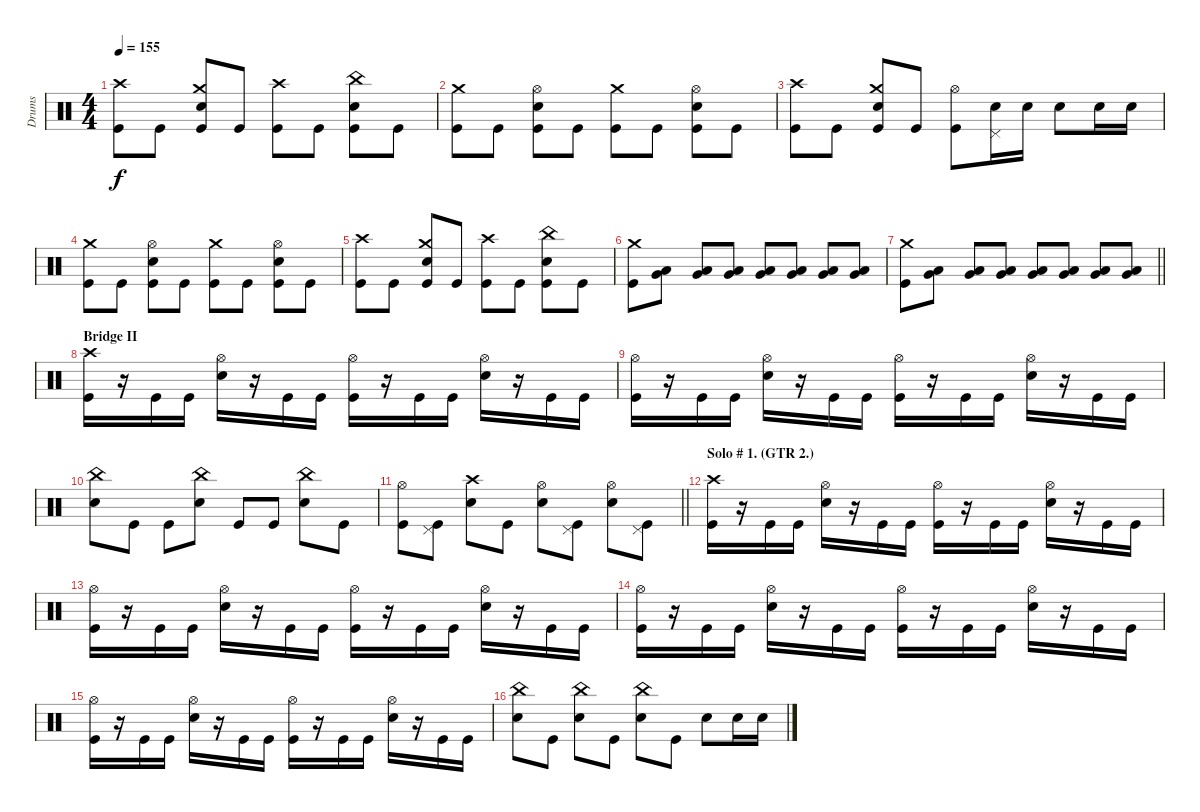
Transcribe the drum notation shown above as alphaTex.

\track ("Drums" "Drums") {instrument percussion}
\staff {score}
\articulation defaults
\ts (4 4)
\tempo 155
\clef neutral
\ks c
("Crash high (hit)" "Kick (hit)").8{dy f} "Kick (hit)".8 ("Crash medium (hit)" "Electric Snare (hit)" "Kick (hit)").8 "Kick (hit)".8 ("Crash high (hit)" "Kick (hit)").8 "Kick (hit)".8 ("China (hit)" "Electric Snare (hit)" "Kick (hit)").8 "Kick (hit)".8 |
("Crash medium (hit)" "Kick (hit)").8 "Kick (hit)".8 ("Hi-Hat (open)" "Electric Snare (hit)" "Kick (hit)").8 "Kick (hit)".8 ("Crash medium (hit)" "Kick (hit)").8 "Kick (hit)".8 ("Hi-Hat (open)" "Electric Snare (hit)" "Kick (hit)").8 "Kick (hit)".8 |
("Crash high (hit)" "Kick (hit)").8 "Kick (hit)".8 ("Crash medium (hit)" "Electric Snare (hit)" "Kick (hit)").8 "Kick (hit)".8 ("Hi-Hat (open)" "Kick (hit)").8 ("Pedal Hi-Hat (hit)" "Electric Snare (hit)").16 "Electric Snare (hit)".16 "Electric Snare (hit)".8 "Electric Snare (hit)".16 "Electric Snare (hit)".16 |
("Crash medium (hit)" "Kick (hit)").8 "Kick (hit)".8 ("Hi-Hat (open)" "Electric Snare (hit)" "Kick (hit)").8 "Kick (hit)".8 ("Crash medium (hit)" "Kick (hit)").8 "Kick (hit)".8 ("Hi-Hat (open)" "Electric Snare (hit)" "Kick (hit)").8 "Kick (hit)".8 |
("Crash high (hit)" "Kick (hit)").8 "Kick (hit)".8 ("Crash medium (hit)" "Electric Snare (hit)" "Kick (hit)").8 "Kick (hit)".8 ("Crash high (hit)" "Kick (hit)").8 "Kick (hit)".8 ("China (hit)" "Electric Snare (hit)" "Kick (hit)").8 "Kick (hit)".8 |
("Crash medium (hit)" "Kick (hit)").8 ("Low Tom (hit)" "Very Low Tom (hit)").8 ("Low Tom (hit)" "Very Low Tom (hit)").8 ("Low Tom (hit)" "Very Low Tom (hit)").8 ("Low Tom (hit)" "Very Low Tom (hit)").8 ("Low Tom (hit)" "Very Low Tom (hit)").8 ("Low Tom (hit)" "Very Low Tom (hit)").8 ("Low Tom (hit)" "Very Low Tom (hit)").8 |
\barLineRight lightlight
("Crash medium (hit)" "Kick (hit)").8 ("Low Tom (hit)" "Very Low Tom (hit)").8 ("Low Tom (hit)" "Very Low Tom (hit)").8 ("Low Tom (hit)" "Very Low Tom (hit)").8 ("Low Tom (hit)" "Very Low Tom (hit)").8 ("Low Tom (hit)" "Very Low Tom (hit)").8 ("Low Tom (hit)" "Very Low Tom (hit)").8 ("Low Tom (hit)" "Very Low Tom (hit)").8 |
\section ("" "Bridge II")
("Crash high (hit)" "Kick (hit)").16 r.16 "Kick (hit)".16 "Kick (hit)".16 ("Hi-Hat (open)" "Electric Snare (hit)").16 r.16 "Kick (hit)".16 "Kick (hit)".16 ("Hi-Hat (open)" "Kick (hit)").16 r.16 "Kick (hit)".16 "Kick (hit)".16 ("Hi-Hat (open)" "Electric Snare (hit)").16 r.16 "Kick (hit)".16 "Kick (hit)".16 |
("Hi-Hat (open)" "Kick (hit)").16 r.16 "Kick (hit)".16 "Kick (hit)".16 ("Hi-Hat (open)" "Electric Snare (hit)").16 r.16 "Kick (hit)".16 "Kick (hit)".16 ("Hi-Hat (open)" "Kick (hit)").16 r.16 "Kick (hit)".16 "Kick (hit)".16 ("Hi-Hat (open)" "Electric Snare (hit)").16 r.16 "Kick (hit)".16 "Kick (hit)".16 |
("China (hit)" "Electric Snare (hit)").8 "Kick (hit)".8 "Kick (hit)".8 ("China (hit)" "Electric Snare (hit)").8 "Kick (hit)".8 "Kick (hit)".8 ("China (hit)" "Electric Snare (hit)").8 "Kick (hit)".8 |
\barLineRight lightlight
("Hi-Hat (open)" "Kick (hit)").8 ("Pedal Hi-Hat (hit)" "Kick (hit)").8 ("Crash high (hit)" "Electric Snare (hit)").8 "Kick (hit)".8 ("Hi-Hat (open)" "Electric Snare (hit)").8 ("Pedal Hi-Hat (hit)" "Kick (hit)").8 ("Hi-Hat (open)" "Electric Snare (hit)").8 ("Pedal Hi-Hat (hit)" "Kick (hit)").8 |
\section ("" "Solo # 1. (GTR 2.)")
("Crash high (hit)" "Kick (hit)").16 r.16 "Kick (hit)".16 "Kick (hit)".16 ("Hi-Hat (open)" "Electric Snare (hit)").16 r.16 "Kick (hit)".16 "Kick (hit)".16 ("Hi-Hat (open)" "Kick (hit)").16 r.16 "Kick (hit)".16 "Kick (hit)".16 ("Hi-Hat (open)" "Electric Snare (hit)").16 r.16 "Kick (hit)".16 "Kick (hit)".16 |
("Hi-Hat (open)" "Kick (hit)").16 r.16 "Kick (hit)".16 "Kick (hit)".16 ("Hi-Hat (open)" "Electric Snare (hit)").16 r.16 "Kick (hit)".16 "Kick (hit)".16 ("Hi-Hat (open)" "Kick (hit)").16 r.16 "Kick (hit)".16 "Kick (hit)".16 ("Hi-Hat (open)" "Electric Snare (hit)").16 r.16 "Kick (hit)".16 "Kick (hit)".16 |
("Hi-Hat (open)" "Kick (hit)").16 r.16 "Kick (hit)".16 "Kick (hit)".16 ("Hi-Hat (open)" "Electric Snare (hit)").16 r.16 "Kick (hit)".16 "Kick (hit)".16 ("Hi-Hat (open)" "Kick (hit)").16 r.16 "Kick (hit)".16 "Kick (hit)".16 ("Hi-Hat (open)" "Electric Snare (hit)").16 r.16 "Kick (hit)".16 "Kick (hit)".16 |
("Hi-Hat (open)" "Kick (hit)").16 r.16 "Kick (hit)".16 "Kick (hit)".16 ("Hi-Hat (open)" "Electric Snare (hit)").16 r.16 "Kick (hit)".16 "Kick (hit)".16 ("Hi-Hat (open)" "Kick (hit)").16 r.16 "Kick (hit)".16 "Kick (hit)".16 ("Hi-Hat (open)" "Electric Snare (hit)").16 r.16 "Kick (hit)".16 "Kick (hit)".16 |
("China (hit)" "Electric Snare (hit)").8 "Kick (hit)".8 ("China (hit)" "Electric Snare (hit)").8 "Kick (hit)".8 ("China (hit)" "Electric Snare (hit)").8 "Kick (hit)".8 "Electric Snare (hit)".8 "Electric Snare (hit)".16 "Electric Snare (hit)".16
